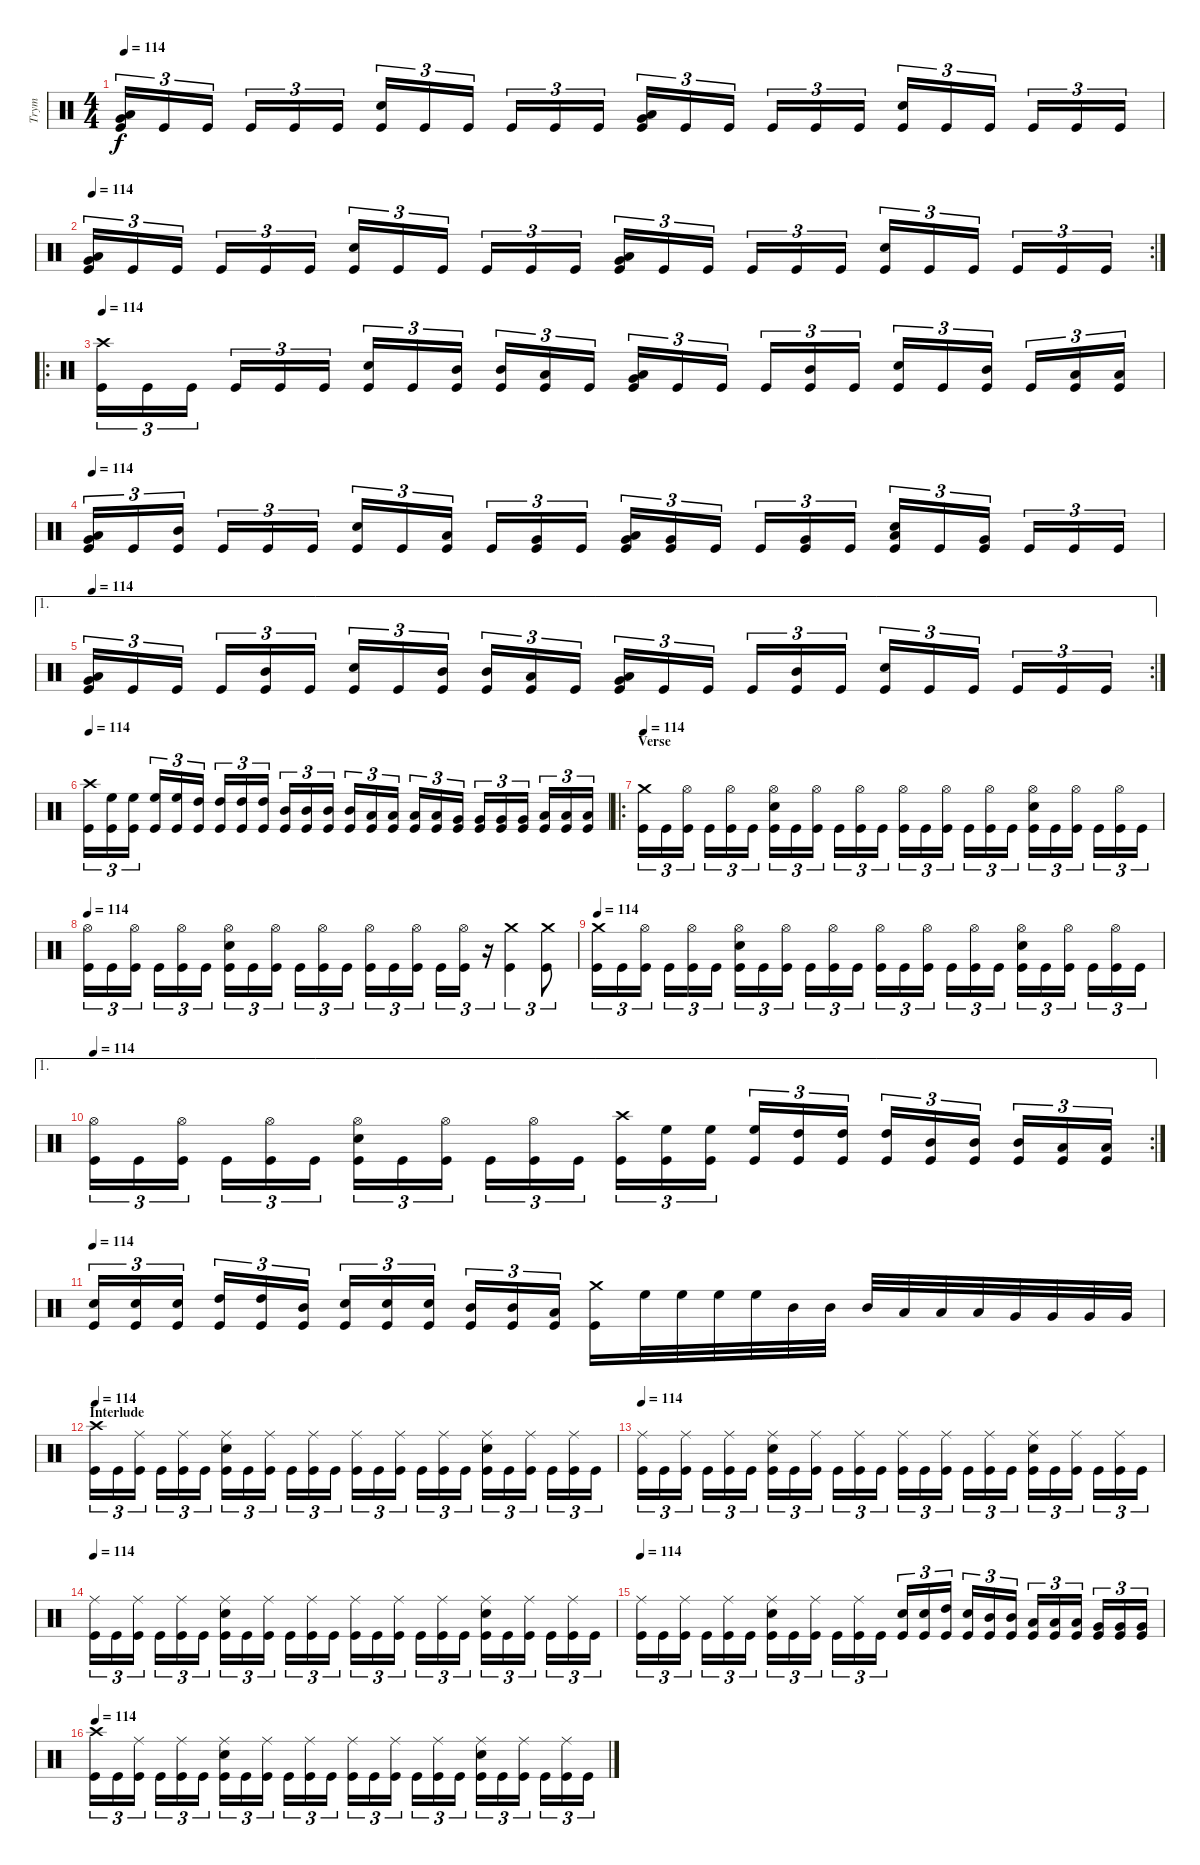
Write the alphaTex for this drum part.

\track ("Trym" "Trym") {instrument percussion}
\staff {score}
\articulation defaults
\ts (4 4)
\tempo 114
\clef neutral
\ks c
("Low Floor Tom (hit)" "Very Low Tom (hit)" "Kick (hit)").16{tu (3 2) dy f} "Kick (hit)".16{tu (3 2)} "Kick (hit)".16{tu (3 2)} "Kick (hit)".16{tu (3 2)} "Kick (hit)".16{tu (3 2)} "Kick (hit)".16{tu (3 2)} ("Electric Snare (hit)" "Kick (hit)").16{tu (3 2)} "Kick (hit)".16{tu (3 2)} "Kick (hit)".16{tu (3 2)} "Kick (hit)".16{tu (3 2)} "Kick (hit)".16{tu (3 2)} "Kick (hit)".16{tu (3 2)} ("Low Floor Tom (hit)" "Very Low Tom (hit)" "Kick (hit)").16{tu (3 2)} "Kick (hit)".16{tu (3 2)} "Kick (hit)".16{tu (3 2)} "Kick (hit)".16{tu (3 2)} "Kick (hit)".16{tu (3 2)} "Kick (hit)".16{tu (3 2)} ("Electric Snare (hit)" "Kick (hit)").16{tu (3 2)} "Kick (hit)".16{tu (3 2)} "Kick (hit)".16{tu (3 2)} "Kick (hit)".16{tu (3 2)} "Kick (hit)".16{tu (3 2)} "Kick (hit)".16{tu (3 2)} |
\rc 2
\tempo 114
("Low Floor Tom (hit)" "Very Low Tom (hit)" "Kick (hit)").16{tu (3 2)} "Kick (hit)".16{tu (3 2)} "Kick (hit)".16{tu (3 2)} "Kick (hit)".16{tu (3 2)} "Kick (hit)".16{tu (3 2)} "Kick (hit)".16{tu (3 2)} ("Electric Snare (hit)" "Kick (hit)").16{tu (3 2)} "Kick (hit)".16{tu (3 2)} "Kick (hit)".16{tu (3 2)} "Kick (hit)".16{tu (3 2)} "Kick (hit)".16{tu (3 2)} "Kick (hit)".16{tu (3 2)} ("Low Floor Tom (hit)" "Very Low Tom (hit)" "Kick (hit)").16{tu (3 2)} "Kick (hit)".16{tu (3 2)} "Kick (hit)".16{tu (3 2)} "Kick (hit)".16{tu (3 2)} "Kick (hit)".16{tu (3 2)} "Kick (hit)".16{tu (3 2)} ("Electric Snare (hit)" "Kick (hit)").16{tu (3 2)} "Kick (hit)".16{tu (3 2)} "Kick (hit)".16{tu (3 2)} "Kick (hit)".16{tu (3 2)} "Kick (hit)".16{tu (3 2)} "Kick (hit)".16{tu (3 2)} |
\ro
\tempo 114
("Crash high (hit)" "Kick (hit)").16{tu (3 2)} "Kick (hit)".16{tu (3 2)} "Kick (hit)".16{tu (3 2)} "Kick (hit)".16{tu (3 2)} "Kick (hit)".16{tu (3 2)} "Kick (hit)".16{tu (3 2)} ("Electric Snare (hit)" "Kick (hit)").16{tu (3 2)} "Kick (hit)".16{tu (3 2)} ("Mid Tom (hit)" "Kick (hit)").16{tu (3 2)} ("Mid Tom (hit)" "Kick (hit)").16{tu (3 2)} ("Low Tom (hit)" "Kick (hit)").16{tu (3 2)} "Kick (hit)".16{tu (3 2)} ("Low Floor Tom (hit)" "Very Low Tom (hit)" "Kick (hit)").16{tu (3 2)} "Kick (hit)".16{tu (3 2)} "Kick (hit)".16{tu (3 2)} "Kick (hit)".16{tu (3 2)} ("Mid Tom (hit)" "Kick (hit)").16{tu (3 2)} "Kick (hit)".16{tu (3 2)} ("Electric Snare (hit)" "Kick (hit)").16{tu (3 2)} "Kick (hit)".16{tu (3 2)} ("Mid Tom (hit)" "Kick (hit)").16{tu (3 2)} "Kick (hit)".16{tu (3 2)} ("Low Tom (hit)" "Kick (hit)").16{tu (3 2)} ("Low Tom (hit)" "Kick (hit)").16{tu (3 2)} |
\tempo 114
("Low Floor Tom (hit)" "Very Low Tom (hit)" "Kick (hit)").16{tu (3 2)} "Kick (hit)".16{tu (3 2)} ("Mid Tom (hit)" "Kick (hit)").16{tu (3 2)} "Kick (hit)".16{tu (3 2)} "Kick (hit)".16{tu (3 2)} "Kick (hit)".16{tu (3 2)} ("Electric Snare (hit)" "Kick (hit)").16{tu (3 2)} "Kick (hit)".16{tu (3 2)} ("Low Tom (hit)" "Kick (hit)").16{tu (3 2)} "Kick (hit)".16{tu (3 2)} ("Very Low Tom (hit)" "Kick (hit)").16{tu (3 2)} "Kick (hit)".16{tu (3 2)} ("Low Floor Tom (hit)" "Very Low Tom (hit)" "Kick (hit)").16{tu (3 2)} ("Very Low Tom (hit)" "Kick (hit)").16{tu (3 2)} "Kick (hit)".16{tu (3 2)} "Kick (hit)".16{tu (3 2)} ("Very Low Tom (hit)" "Kick (hit)").16{tu (3 2)} "Kick (hit)".16{tu (3 2)} ("Low Floor Tom (hit)" "Electric Snare (hit)" "Kick (hit)").16{tu (3 2)} "Kick (hit)".16{tu (3 2)} ("Very Low Tom (hit)" "Kick (hit)").16{tu (3 2)} "Kick (hit)".16{tu (3 2)} "Kick (hit)".16{tu (3 2)} "Kick (hit)".16{tu (3 2)} |
\ae 1
\rc 2
\tempo 114
("Low Floor Tom (hit)" "Very Low Tom (hit)" "Kick (hit)").16{tu (3 2)} "Kick (hit)".16{tu (3 2)} "Kick (hit)".16{tu (3 2)} "Kick (hit)".16{tu (3 2)} ("Mid Tom (hit)" "Kick (hit)").16{tu (3 2)} "Kick (hit)".16{tu (3 2)} ("Electric Snare (hit)" "Kick (hit)").16{tu (3 2)} "Kick (hit)".16{tu (3 2)} ("Mid Tom (hit)" "Kick (hit)").16{tu (3 2)} ("Mid Tom (hit)" "Kick (hit)").16{tu (3 2)} ("Low Tom (hit)" "Kick (hit)").16{tu (3 2)} "Kick (hit)".16{tu (3 2)} ("Low Floor Tom (hit)" "Very Low Tom (hit)" "Kick (hit)").16{tu (3 2)} "Kick (hit)".16{tu (3 2)} "Kick (hit)".16{tu (3 2)} "Kick (hit)".16{tu (3 2)} ("Mid Tom (hit)" "Kick (hit)").16{tu (3 2)} "Kick (hit)".16{tu (3 2)} ("Electric Snare (hit)" "Kick (hit)").16{tu (3 2)} "Kick (hit)".16{tu (3 2)} "Kick (hit)".16{tu (3 2)} "Kick (hit)".16{tu (3 2)} "Kick (hit)".16{tu (3 2)} "Kick (hit)".16{tu (3 2)} |
\tempo 114
("Crash high (hit)" "Kick (hit)").16{tu (3 2)} ("High Floor Tom (hit)" "Kick (hit)").16{tu (3 2)} ("High Floor Tom (hit)" "Kick (hit)").16{tu (3 2)} ("High Floor Tom (hit)" "Kick (hit)").16{tu (3 2)} ("High Floor Tom (hit)" "Kick (hit)").16{tu (3 2)} ("High Tom (hit)" "Kick (hit)").16{tu (3 2)} ("High Tom (hit)" "Kick (hit)").16{tu (3 2)} ("High Tom (hit)" "Kick (hit)").16{tu (3 2)} ("High Tom (hit)" "Kick (hit)").16{tu (3 2)} ("Mid Tom (hit)" "Kick (hit)").16{tu (3 2)} ("Mid Tom (hit)" "Kick (hit)").16{tu (3 2)} ("Mid Tom (hit)" "Kick (hit)").16{tu (3 2)} ("Mid Tom (hit)" "Kick (hit)").16{tu (3 2)} ("Low Tom (hit)" "Kick (hit)").16{tu (3 2)} ("Low Tom (hit)" "Kick (hit)").16{tu (3 2)} ("Low Tom (hit)" "Kick (hit)").16{tu (3 2)} ("Low Tom (hit)" "Kick (hit)").16{tu (3 2)} ("Very Low Tom (hit)" "Kick (hit)").16{tu (3 2)} ("Very Low Tom (hit)" "Kick (hit)").16{tu (3 2)} ("Very Low Tom (hit)" "Kick (hit)").16{tu (3 2)} ("Very Low Tom (hit)" "Kick (hit)").16{tu (3 2)} ("Low Floor Tom (hit)" "Kick (hit)").16{tu (3 2)} ("Low Floor Tom (hit)" "Kick (hit)").16{tu (3 2)} ("Low Floor Tom (hit)" "Kick (hit)").16{tu (3 2)} |
\ro
\section ("" "Verse")
\tempo 114
("Crash medium (hit)" "Kick (hit)").16{tu (3 2)} "Kick (hit)".16{tu (3 2)} ("Hi-Hat (open)" "Kick (hit)").16{tu (3 2)} "Kick (hit)".16{tu (3 2)} ("Hi-Hat (open)" "Kick (hit)").16{tu (3 2)} "Kick (hit)".16{tu (3 2)} ("Hi-Hat (open)" "Electric Snare (hit)" "Kick (hit)").16{tu (3 2)} "Kick (hit)".16{tu (3 2)} ("Hi-Hat (open)" "Kick (hit)").16{tu (3 2)} "Kick (hit)".16{tu (3 2)} ("Hi-Hat (open)" "Kick (hit)").16{tu (3 2)} "Kick (hit)".16{tu (3 2)} ("Hi-Hat (open)" "Kick (hit)").16{tu (3 2)} "Kick (hit)".16{tu (3 2)} ("Hi-Hat (open)" "Kick (hit)").16{tu (3 2)} "Kick (hit)".16{tu (3 2)} ("Hi-Hat (open)" "Kick (hit)").16{tu (3 2)} "Kick (hit)".16{tu (3 2)} ("Hi-Hat (open)" "Electric Snare (hit)" "Kick (hit)").16{tu (3 2)} "Kick (hit)".16{tu (3 2)} ("Hi-Hat (open)" "Kick (hit)").16{tu (3 2)} "Kick (hit)".16{tu (3 2)} ("Hi-Hat (open)" "Kick (hit)").16{tu (3 2)} "Kick (hit)".16{tu (3 2)} |
\tempo 114
("Hi-Hat (open)" "Kick (hit)").16{tu (3 2)} "Kick (hit)".16{tu (3 2)} ("Hi-Hat (open)" "Kick (hit)").16{tu (3 2)} "Kick (hit)".16{tu (3 2)} ("Hi-Hat (open)" "Kick (hit)").16{tu (3 2)} "Kick (hit)".16{tu (3 2)} ("Hi-Hat (open)" "Electric Snare (hit)" "Kick (hit)").16{tu (3 2)} "Kick (hit)".16{tu (3 2)} ("Hi-Hat (open)" "Kick (hit)").16{tu (3 2)} "Kick (hit)".16{tu (3 2)} ("Hi-Hat (open)" "Kick (hit)").16{tu (3 2)} "Kick (hit)".16{tu (3 2)} ("Hi-Hat (open)" "Kick (hit)").16{tu (3 2)} "Kick (hit)".16{tu (3 2)} ("Hi-Hat (open)" "Kick (hit)").16{tu (3 2)} "Kick (hit)".16{tu (3 2)} ("Hi-Hat (open)" "Kick (hit)").16{tu (3 2)} r.16{tu (3 2)} ("Crash medium (hit)" "Kick (hit)").4{tu (3 2)} ("Crash medium (hit)" "Kick (hit)").8{tu (3 2)} |
\tempo 114
("Crash medium (hit)" "Kick (hit)").16{tu (3 2)} "Kick (hit)".16{tu (3 2)} ("Hi-Hat (open)" "Kick (hit)").16{tu (3 2)} "Kick (hit)".16{tu (3 2)} ("Hi-Hat (open)" "Kick (hit)").16{tu (3 2)} "Kick (hit)".16{tu (3 2)} ("Hi-Hat (open)" "Electric Snare (hit)" "Kick (hit)").16{tu (3 2)} "Kick (hit)".16{tu (3 2)} ("Hi-Hat (open)" "Kick (hit)").16{tu (3 2)} "Kick (hit)".16{tu (3 2)} ("Hi-Hat (open)" "Kick (hit)").16{tu (3 2)} "Kick (hit)".16{tu (3 2)} ("Hi-Hat (open)" "Kick (hit)").16{tu (3 2)} "Kick (hit)".16{tu (3 2)} ("Hi-Hat (open)" "Kick (hit)").16{tu (3 2)} "Kick (hit)".16{tu (3 2)} ("Hi-Hat (open)" "Kick (hit)").16{tu (3 2)} "Kick (hit)".16{tu (3 2)} ("Hi-Hat (open)" "Electric Snare (hit)" "Kick (hit)").16{tu (3 2)} "Kick (hit)".16{tu (3 2)} ("Hi-Hat (open)" "Kick (hit)").16{tu (3 2)} "Kick (hit)".16{tu (3 2)} ("Hi-Hat (open)" "Kick (hit)").16{tu (3 2)} "Kick (hit)".16{tu (3 2)} |
\ae 1
\rc 2
\tempo 114
("Hi-Hat (open)" "Kick (hit)").16{tu (3 2)} "Kick (hit)".16{tu (3 2)} ("Hi-Hat (open)" "Kick (hit)").16{tu (3 2)} "Kick (hit)".16{tu (3 2)} ("Hi-Hat (open)" "Kick (hit)").16{tu (3 2)} "Kick (hit)".16{tu (3 2)} ("Hi-Hat (open)" "Electric Snare (hit)" "Kick (hit)").16{tu (3 2)} "Kick (hit)".16{tu (3 2)} ("Hi-Hat (open)" "Kick (hit)").16{tu (3 2)} "Kick (hit)".16{tu (3 2)} ("Hi-Hat (open)" "Kick (hit)").16{tu (3 2)} "Kick (hit)".16{tu (3 2)} ("Crash high (hit)" "Kick (hit)").16{tu (3 2)} ("High Floor Tom (hit)" "Kick (hit)").16{tu (3 2)} ("High Floor Tom (hit)" "Kick (hit)").16{tu (3 2)} ("High Floor Tom (hit)" "Kick (hit)").16{tu (3 2)} ("High Tom (hit)" "Kick (hit)").16{tu (3 2)} ("High Tom (hit)" "Kick (hit)").16{tu (3 2)} ("High Tom (hit)" "Kick (hit)").16{tu (3 2)} ("Mid Tom (hit)" "Kick (hit)").16{tu (3 2)} ("Mid Tom (hit)" "Kick (hit)").16{tu (3 2)} ("Mid Tom (hit)" "Kick (hit)").16{tu (3 2)} ("Low Tom (hit)" "Kick (hit)").16{tu (3 2)} ("Low Tom (hit)" "Kick (hit)").16{tu (3 2)} |
\tempo 114
("Electric Snare (hit)" "Kick (hit)").16{tu (3 2)} ("Electric Snare (hit)" "Kick (hit)").16{tu (3 2)} ("Electric Snare (hit)" "Kick (hit)").16{tu (3 2)} ("High Tom (hit)" "Kick (hit)").16{tu (3 2)} ("High Tom (hit)" "Kick (hit)").16{tu (3 2)} ("Mid Tom (hit)" "Kick (hit)").16{tu (3 2)} ("Electric Snare (hit)" "Kick (hit)").16{tu (3 2)} ("Electric Snare (hit)" "Kick (hit)").16{tu (3 2)} ("Electric Snare (hit)" "Kick (hit)").16{tu (3 2)} ("Mid Tom (hit)" "Kick (hit)").16{tu (3 2)} ("Mid Tom (hit)" "Kick (hit)").16{tu (3 2)} ("Low Tom (hit)" "Kick (hit)").16{tu (3 2)} ("Crash medium (hit)" "Kick (hit)").16 "High Floor Tom (hit)".32 "High Floor Tom (hit)".32 "High Floor Tom (hit)".32 "High Floor Tom (hit)".32 "Mid Tom (hit)".32 "Mid Tom (hit)".32 "Mid Tom (hit)".32 "Low Tom (hit)".32 "Low Tom (hit)".32 "Low Tom (hit)".32 "Very Low Tom (hit)".32 "Very Low Tom (hit)".32 "Very Low Tom (hit)".32 "Very Low Tom (hit)".32 |
\section ("" "Interlude")
\tempo 114
("Crash high (hit)" "Kick (hit)").16{tu (3 2)} "Kick (hit)".16{tu (3 2)} ("Ride (middle)" "Kick (hit)").16{tu (3 2)} "Kick (hit)".16{tu (3 2)} ("Ride (middle)" "Kick (hit)").16{tu (3 2)} "Kick (hit)".16{tu (3 2)} ("Ride (middle)" "Electric Snare (hit)" "Kick (hit)").16{tu (3 2)} "Kick (hit)".16{tu (3 2)} ("Ride (middle)" "Kick (hit)").16{tu (3 2)} "Kick (hit)".16{tu (3 2)} ("Ride (middle)" "Kick (hit)").16{tu (3 2)} "Kick (hit)".16{tu (3 2)} ("Ride (middle)" "Kick (hit)").16{tu (3 2)} "Kick (hit)".16{tu (3 2)} ("Ride (middle)" "Kick (hit)").16{tu (3 2)} "Kick (hit)".16{tu (3 2)} ("Ride (middle)" "Kick (hit)").16{tu (3 2)} "Kick (hit)".16{tu (3 2)} ("Ride (middle)" "Electric Snare (hit)" "Kick (hit)").16{tu (3 2)} "Kick (hit)".16{tu (3 2)} ("Ride (middle)" "Kick (hit)").16{tu (3 2)} "Kick (hit)".16{tu (3 2)} ("Ride (middle)" "Kick (hit)").16{tu (3 2)} "Kick (hit)".16{tu (3 2)} |
\tempo 114
("Ride (middle)" "Kick (hit)").16{tu (3 2)} "Kick (hit)".16{tu (3 2)} ("Ride (middle)" "Kick (hit)").16{tu (3 2)} "Kick (hit)".16{tu (3 2)} ("Ride (middle)" "Kick (hit)").16{tu (3 2)} "Kick (hit)".16{tu (3 2)} ("Ride (middle)" "Electric Snare (hit)" "Kick (hit)").16{tu (3 2)} "Kick (hit)".16{tu (3 2)} ("Ride (middle)" "Kick (hit)").16{tu (3 2)} "Kick (hit)".16{tu (3 2)} ("Ride (middle)" "Kick (hit)").16{tu (3 2)} "Kick (hit)".16{tu (3 2)} ("Ride (middle)" "Kick (hit)").16{tu (3 2)} "Kick (hit)".16{tu (3 2)} ("Ride (middle)" "Kick (hit)").16{tu (3 2)} "Kick (hit)".16{tu (3 2)} ("Ride (middle)" "Kick (hit)").16{tu (3 2)} "Kick (hit)".16{tu (3 2)} ("Ride (middle)" "Electric Snare (hit)" "Kick (hit)").16{tu (3 2)} "Kick (hit)".16{tu (3 2)} ("Ride (middle)" "Kick (hit)").16{tu (3 2)} "Kick (hit)".16{tu (3 2)} ("Ride (middle)" "Kick (hit)").16{tu (3 2)} "Kick (hit)".16{tu (3 2)} |
\tempo 114
("Ride (middle)" "Kick (hit)").16{tu (3 2)} "Kick (hit)".16{tu (3 2)} ("Ride (middle)" "Kick (hit)").16{tu (3 2)} "Kick (hit)".16{tu (3 2)} ("Ride (middle)" "Kick (hit)").16{tu (3 2)} "Kick (hit)".16{tu (3 2)} ("Ride (middle)" "Electric Snare (hit)" "Kick (hit)").16{tu (3 2)} "Kick (hit)".16{tu (3 2)} ("Ride (middle)" "Kick (hit)").16{tu (3 2)} "Kick (hit)".16{tu (3 2)} ("Ride (middle)" "Kick (hit)").16{tu (3 2)} "Kick (hit)".16{tu (3 2)} ("Ride (middle)" "Kick (hit)").16{tu (3 2)} "Kick (hit)".16{tu (3 2)} ("Ride (middle)" "Kick (hit)").16{tu (3 2)} "Kick (hit)".16{tu (3 2)} ("Ride (middle)" "Kick (hit)").16{tu (3 2)} "Kick (hit)".16{tu (3 2)} ("Ride (middle)" "Electric Snare (hit)" "Kick (hit)").16{tu (3 2)} "Kick (hit)".16{tu (3 2)} ("Ride (middle)" "Kick (hit)").16{tu (3 2)} "Kick (hit)".16{tu (3 2)} ("Ride (middle)" "Kick (hit)").16{tu (3 2)} "Kick (hit)".16{tu (3 2)} |
\tempo 114
("Ride (middle)" "Kick (hit)").16{tu (3 2)} "Kick (hit)".16{tu (3 2)} ("Ride (middle)" "Kick (hit)").16{tu (3 2)} "Kick (hit)".16{tu (3 2)} ("Ride (middle)" "Kick (hit)").16{tu (3 2)} "Kick (hit)".16{tu (3 2)} ("Ride (middle)" "Electric Snare (hit)" "Kick (hit)").16{tu (3 2)} "Kick (hit)".16{tu (3 2)} ("Ride (middle)" "Kick (hit)").16{tu (3 2)} "Kick (hit)".16{tu (3 2)} ("Ride (middle)" "Kick (hit)").16{tu (3 2)} "Kick (hit)".16{tu (3 2)} ("Electric Snare (hit)" "Kick (hit)").16{tu (3 2)} ("Electric Snare (hit)" "Kick (hit)").16{tu (3 2)} ("High Tom (hit)" "Kick (hit)").16{tu (3 2)} ("Electric Snare (hit)" "Kick (hit)").16{tu (3 2)} ("Mid Tom (hit)" "Kick (hit)").16{tu (3 2)} ("Mid Tom (hit)" "Kick (hit)").16{tu (3 2)} ("Low Tom (hit)" "Kick (hit)").16{tu (3 2)} ("Low Tom (hit)" "Kick (hit)").16{tu (3 2)} ("Low Tom (hit)" "Kick (hit)").16{tu (3 2)} ("Very Low Tom (hit)" "Kick (hit)").16{tu (3 2)} ("Very Low Tom (hit)" "Kick (hit)").16{tu (3 2)} ("Very Low Tom (hit)" "Kick (hit)").16{tu (3 2)} |
\tempo 114
("Crash high (hit)" "Kick (hit)").16{tu (3 2)} "Kick (hit)".16{tu (3 2)} ("Ride (middle)" "Kick (hit)").16{tu (3 2)} "Kick (hit)".16{tu (3 2)} ("Ride (middle)" "Kick (hit)").16{tu (3 2)} "Kick (hit)".16{tu (3 2)} ("Ride (middle)" "Electric Snare (hit)" "Kick (hit)").16{tu (3 2)} "Kick (hit)".16{tu (3 2)} ("Ride (middle)" "Kick (hit)").16{tu (3 2)} "Kick (hit)".16{tu (3 2)} ("Ride (middle)" "Kick (hit)").16{tu (3 2)} "Kick (hit)".16{tu (3 2)} ("Ride (middle)" "Kick (hit)").16{tu (3 2)} "Kick (hit)".16{tu (3 2)} ("Ride (middle)" "Kick (hit)").16{tu (3 2)} "Kick (hit)".16{tu (3 2)} ("Ride (middle)" "Kick (hit)").16{tu (3 2)} "Kick (hit)".16{tu (3 2)} ("Ride (middle)" "Electric Snare (hit)" "Kick (hit)").16{tu (3 2)} "Kick (hit)".16{tu (3 2)} ("Ride (middle)" "Kick (hit)").16{tu (3 2)} "Kick (hit)".16{tu (3 2)} ("Ride (middle)" "Kick (hit)").16{tu (3 2)} "Kick (hit)".16{tu (3 2)}
